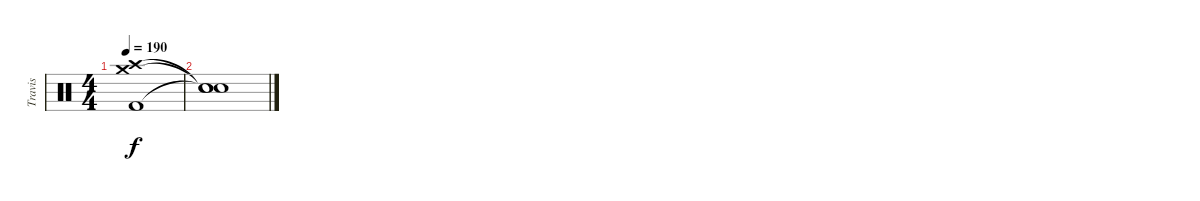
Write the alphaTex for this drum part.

\track ("Travis" "Travis") {instrument percussion}
\staff {score}
\articulation defaults
\ts (4 4)
\tempo 190
\clef neutral
\ks c
("Crash high (hit)" "Crash medium (hit)" "Kick (hit) 2").1{dy f} |
("Snare (hit)"{t} "Snare (hit)"{t} "Snare (hit)"{t}).1
